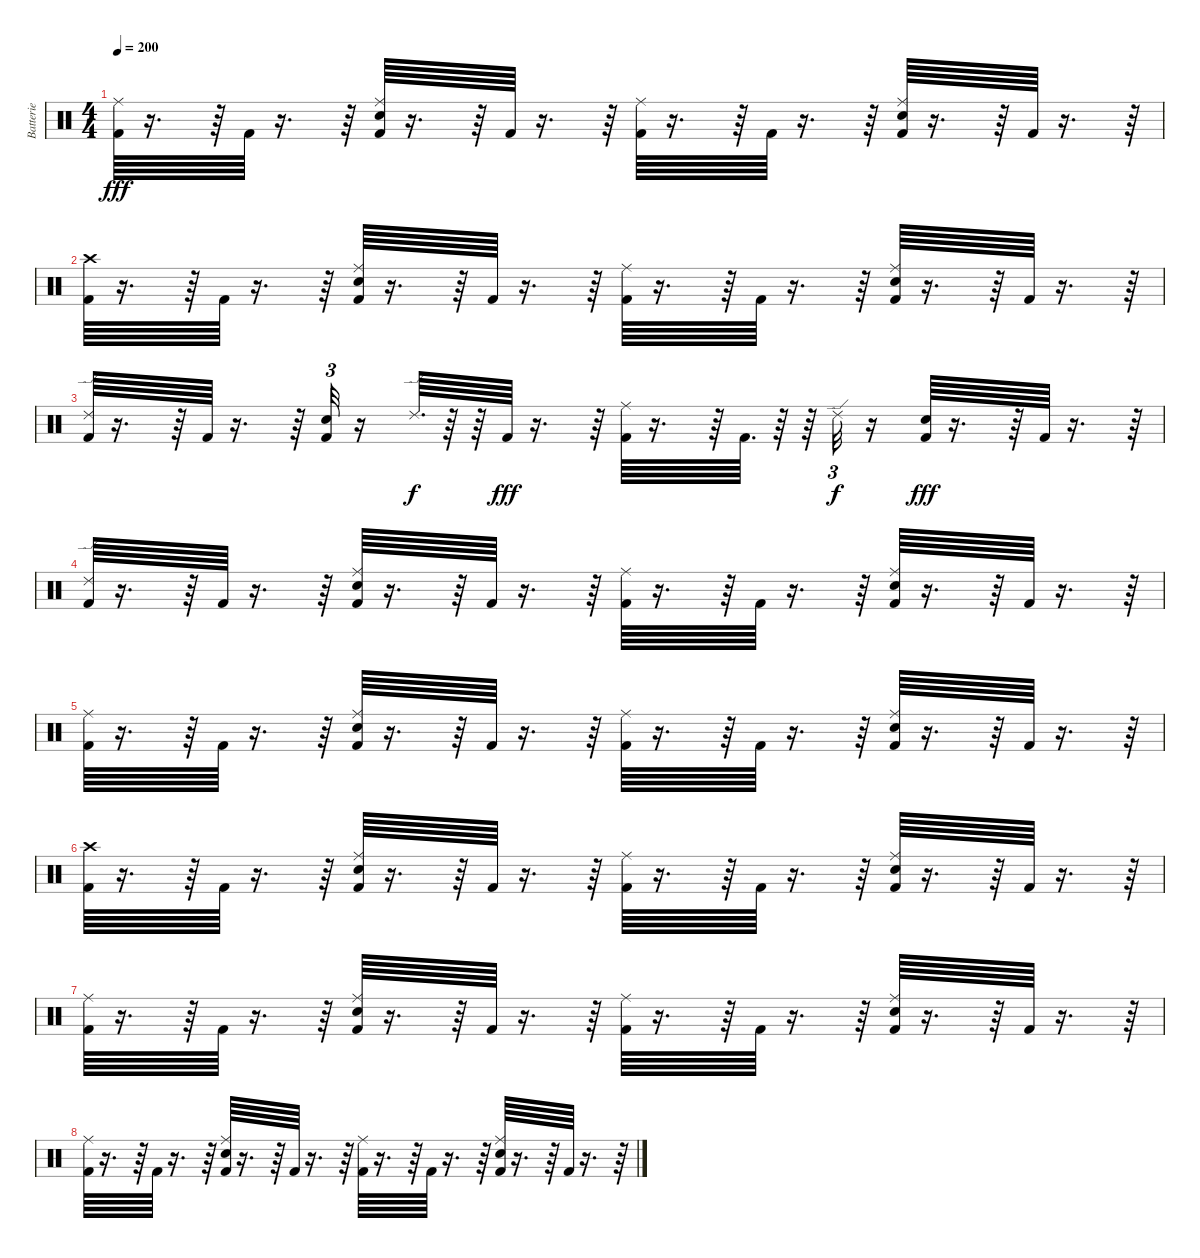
\track ("Batterie" "Batterie") {instrument percussion}
\staff {score}
\articulation defaults
\ts (4 4)
\tempo 200
\clef neutral
\ks c
("Kick (hit) 2" "Ride (middle)").64{dy fff} r.16{d} r.64 "Kick (hit) 2".64 r.16{d} r.64 ("Kick (hit) 2" "Snare (hit) 2" "Ride (middle)").64 r.16{d} r.64 "Kick (hit) 2".64 r.16{d} r.64 ("Kick (hit) 2" "Ride (middle)").64 r.16{d} r.64 "Kick (hit) 2".64 r.16{d} r.64 ("Kick (hit) 2" "Snare (hit) 2" "Ride (middle)").64 r.16{d} r.64 "Kick (hit) 2".64 r.16{d} r.64 |
("Kick (hit) 2" "Crash high (hit)").64 r.16{d} r.64 "Kick (hit) 2".64 r.16{d} r.64 ("Kick (hit) 2" "Snare (hit) 2" "Ride (middle)").64 r.16{d} r.64 "Kick (hit) 2".64 r.16{d} r.64 ("Kick (hit) 2" "Ride (middle)").64 r.16{d} r.64 "Kick (hit) 2".64 r.16{d} r.64 ("Kick (hit) 2" "Snare (hit) 2" "Ride (middle)").64 r.16{d} r.64 "Kick (hit) 2".64 r.16{d} r.64 |
("Kick (hit) 2" "Ride (edge) 2").64 r.16{d} r.64 "Kick (hit) 2".64 r.16{d} r.64 ("Kick (hit) 2" "Snare (hit) 2").32{tu (3 2)} r.16 "Ride (edge) 2".64{d dy f} r.64 r.64 "Kick (hit) 2".64{dy fff} r.16{d} r.64 ("Kick (hit) 2" "Ride (middle)").64 r.16{d} r.64 "Kick (hit) 2".64{d} r.64 r.64 "Ride (edge) 2".32{tu (3 2) dy f} r.16 ("Kick (hit) 2" "Snare (hit) 2").64{dy fff} r.16{d} r.64 "Kick (hit) 2".64 r.16{d} r.64 |
("Kick (hit) 2" "Ride (edge) 2").64 r.16{d} r.64 "Kick (hit) 2".64 r.16{d} r.64 ("Kick (hit) 2" "Snare (hit) 2" "Ride (middle)").64 r.16{d} r.64 "Kick (hit) 2".64 r.16{d} r.64 ("Kick (hit) 2" "Ride (middle)").64 r.16{d} r.64 "Kick (hit) 2".64 r.16{d} r.64 ("Kick (hit) 2" "Snare (hit) 2" "Ride (middle)").64 r.16{d} r.64 "Kick (hit) 2".64 r.16{d} r.64 |
("Kick (hit) 2" "Ride (middle)").64 r.16{d} r.64 "Kick (hit) 2".64 r.16{d} r.64 ("Kick (hit) 2" "Snare (hit) 2" "Ride (middle)").64 r.16{d} r.64 "Kick (hit) 2".64 r.16{d} r.64 ("Kick (hit) 2" "Ride (middle)").64 r.16{d} r.64 "Kick (hit) 2".64 r.16{d} r.64 ("Kick (hit) 2" "Snare (hit) 2" "Ride (middle)").64 r.16{d} r.64 "Kick (hit) 2".64 r.16{d} r.64 |
("Kick (hit) 2" "Crash high (hit)").64 r.16{d} r.64 "Kick (hit) 2".64 r.16{d} r.64 ("Kick (hit) 2" "Snare (hit) 2" "Ride (middle)").64 r.16{d} r.64 "Kick (hit) 2".64 r.16{d} r.64 ("Kick (hit) 2" "Ride (middle)").64 r.16{d} r.64 "Kick (hit) 2".64 r.16{d} r.64 ("Kick (hit) 2" "Snare (hit) 2" "Ride (middle)").64 r.16{d} r.64 "Kick (hit) 2".64 r.16{d} r.64 |
("Kick (hit) 2" "Ride (middle)").64 r.16{d} r.64 "Kick (hit) 2".64 r.16{d} r.64 ("Kick (hit) 2" "Snare (hit) 2" "Ride (middle)").64 r.16{d} r.64 "Kick (hit) 2".64 r.16{d} r.64 ("Kick (hit) 2" "Ride (middle)").64 r.16{d} r.64 "Kick (hit) 2".64 r.16{d} r.64 ("Kick (hit) 2" "Snare (hit) 2" "Ride (middle)").64 r.16{d} r.64 "Kick (hit) 2".64 r.16{d} r.64 |
("Kick (hit) 2" "Ride (middle)").64 r.16{d} r.64 "Kick (hit) 2".64 r.16{d} r.64 ("Kick (hit) 2" "Snare (hit) 2" "Ride (middle)").64 r.16{d} r.64 "Kick (hit) 2".64 r.16{d} r.64 ("Kick (hit) 2" "Ride (middle)").64 r.16{d} r.64 "Kick (hit) 2".64 r.16{d} r.64 ("Kick (hit) 2" "Snare (hit) 2" "Ride (middle)").64 r.16{d} r.64 "Kick (hit) 2".64 r.16{d} r.64
